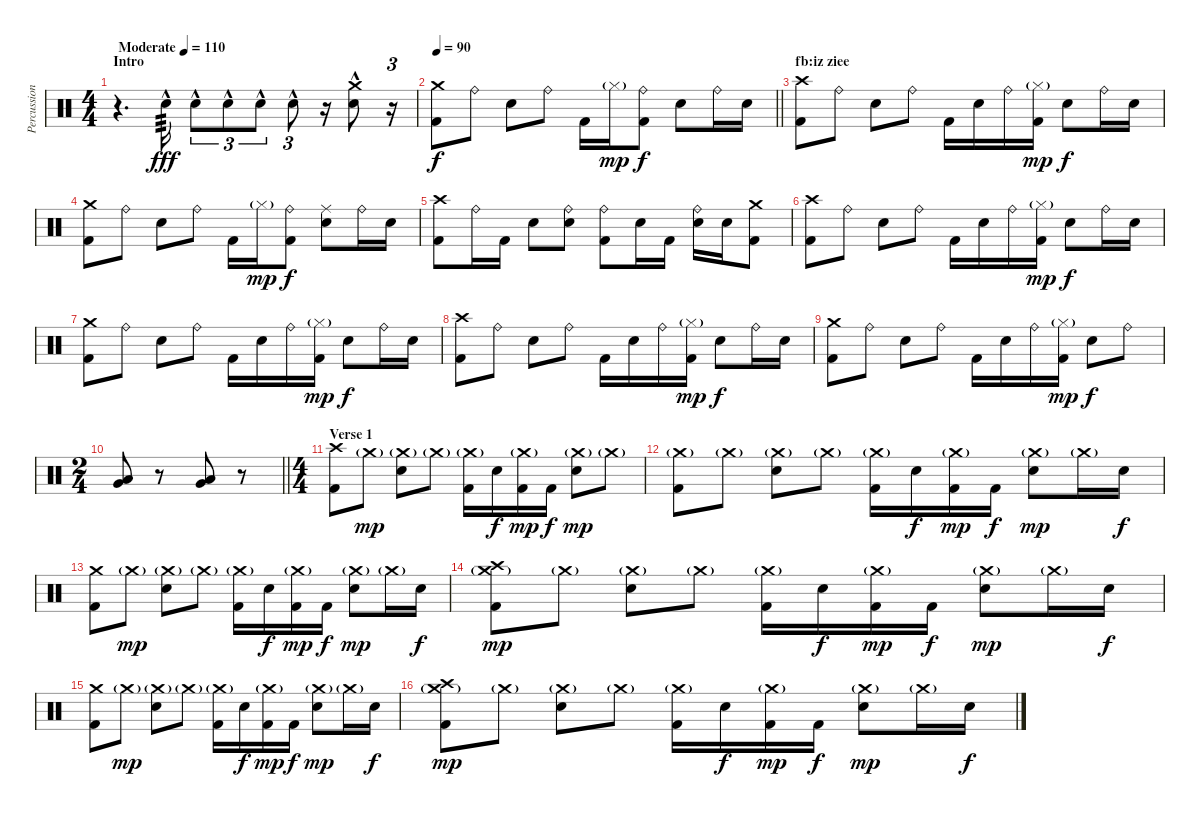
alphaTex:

\track ("Percussion" "Percussion") {instrument percussion}
\staff {score}
\articulation defaults
\ts (4 4)
\section ("" "Intro")
\tempo (110 "Moderate")
\clef neutral
\ks c
r.4{d dy fff} "Electric Snare (hit)"{hac}.16{tp 3} "Electric Snare (hit)"{hac}.8{tu (3 2)} "Electric Snare (hit)"{hac}.8{tu (3 2)} "Electric Snare (hit)"{hac}.8{tu (3 2)} "Electric Snare (hit)"{hac}.8{tu (3 2)} r.16 ("Crash medium (hit)" "Electric Snare (hit)"{hac}).8 r.16{tu (3 2)} |
\tempo 90
\barLineRight lightlight
("Crash medium (hit)" "Kick (hit) 2").8{dy f} "Ride (bell)".8 "Electric Snare (hit)".8 "Ride (bell)".8 "Kick (hit) 2".16 "Hi-Hat (closed)"{g}.16{dy mp} ("Ride (bell)" "Kick (hit) 2").8{dy f} "Electric Snare (hit)".8 "Ride (bell)".16 "Electric Snare (hit)".16 |
\section ("" "fb:iz ziee")
("Crash high (hit)" "Kick (hit) 2").8 "Ride (bell)".8 "Electric Snare (hit)".8 "Ride (bell)".8 "Kick (hit) 2".16 "Electric Snare (hit)".16 "Ride (bell)".16 ("Hi-Hat (closed)"{g} "Kick (hit) 2").16{dy mp} "Electric Snare (hit)".8{dy f} "Ride (bell)".16 "Electric Snare (hit)".16 |
("Crash medium (hit)" "Kick (hit) 2").8 "Ride (bell)".8 "Electric Snare (hit)".8 "Ride (bell)".8 "Kick (hit) 2".16 "Hi-Hat (closed)"{g}.16{dy mp} ("Ride (bell)" "Kick (hit) 2").8{dy f} ("Ride (middle)" "Electric Snare (hit)").8 "Ride (bell)".16 "Electric Snare (hit)".16 |
("Crash high (hit)" "Kick (hit) 2").8 "Ride (bell)".16 "Kick (hit) 2".16 "Electric Snare (hit)".8 ("Ride (bell)" "Electric Snare (hit)").8 ("Ride (bell)" "Kick (hit) 2").8 "Electric Snare (hit)".16 "Kick (hit) 2".16 ("Ride (bell)" "Electric Snare (hit)").16 "Electric Snare (hit)".16 ("Crash medium (hit)" "Kick (hit) 2").8 |
("Crash high (hit)" "Kick (hit) 2").8 "Ride (bell)".8 "Electric Snare (hit)".8 "Ride (bell)".8 "Kick (hit) 2".16 "Electric Snare (hit)".16 "Ride (bell)".16 ("Hi-Hat (closed)"{g} "Kick (hit) 2").16{dy mp} "Electric Snare (hit)".8{dy f} "Ride (bell)".16 "Electric Snare (hit)".16 |
("Crash medium (hit)" "Kick (hit) 2").8 "Ride (bell)".8 "Electric Snare (hit)".8 "Ride (bell)".8 "Kick (hit) 2".16 "Electric Snare (hit)".16 "Ride (bell)".16 ("Hi-Hat (closed)"{g} "Kick (hit) 2").16{dy mp} "Electric Snare (hit)".8{dy f} "Ride (bell)".16 "Electric Snare (hit)".16 |
("Crash high (hit)" "Kick (hit) 2").8 "Ride (bell)".8 "Electric Snare (hit)".8 "Ride (bell)".8 "Kick (hit) 2".16 "Electric Snare (hit)".16 "Ride (bell)".16 ("Hi-Hat (closed)"{g} "Kick (hit) 2").16{dy mp} "Electric Snare (hit)".8{dy f} "Ride (bell)".16 "Electric Snare (hit)".16 |
("Crash medium (hit)" "Kick (hit) 2").8 "Ride (bell)".8 "Electric Snare (hit)".8 "Ride (bell)".8 "Kick (hit) 2".16 "Electric Snare (hit)".16 "Ride (bell)".16 ("Hi-Hat (closed)"{g} "Kick (hit) 2").16{dy mp} "Electric Snare (hit)".8{dy f} "Ride (bell)".8 |
\ts (2 4)
\barLineRight lightlight
("Very Low Tom (hit)" "Low Floor Tom (hit)").8{bd 60} r.8 ("Very Low Tom (hit)" "Low Floor Tom (hit)").8{bd 60} r.8 |
\ts (4 4)
\section ("" "Verse 1")
("Crash high (hit)" "Kick (hit) 2").8 "Crash medium (hit)"{g}.8{dy mp} ("Crash medium (hit)"{g} "Electric Snare (hit)").8 "Crash medium (hit)"{g}.8 ("Crash medium (hit)"{g} "Kick (hit) 2").16 "Electric Snare (hit)".16{dy f} ("Crash medium (hit)"{g} "Kick (hit) 2").16{dy mp} "Kick (hit) 2".16{dy f} ("Crash medium (hit)"{g} "Electric Snare (hit)").8{dy mp} "Crash medium (hit)"{g}.8 |
("Crash medium (hit)"{g} "Kick (hit) 2").8 "Crash medium (hit)"{g}.8 ("Crash medium (hit)"{g} "Electric Snare (hit)").8 "Crash medium (hit)"{g}.8 ("Crash medium (hit)"{g} "Kick (hit) 2").16 "Electric Snare (hit)".16{dy f} ("Crash medium (hit)"{g} "Kick (hit) 2").16{dy mp} "Kick (hit) 2".16{dy f} ("Crash medium (hit)"{g} "Electric Snare (hit)").8{dy mp} "Crash medium (hit)"{g}.16 "Electric Snare (hit)".16{dy f} |
("Crash medium (hit)" "Kick (hit) 2").8 "Crash medium (hit)"{g}.8{dy mp} ("Crash medium (hit)"{g} "Electric Snare (hit)").8 "Crash medium (hit)"{g}.8 ("Crash medium (hit)"{g} "Kick (hit) 2").16 "Electric Snare (hit)".16{dy f} ("Crash medium (hit)"{g} "Kick (hit) 2").16{dy mp} "Kick (hit) 2".16{dy f} ("Crash medium (hit)"{g} "Electric Snare (hit)").8{dy mp} "Crash medium (hit)"{g}.16 "Electric Snare (hit)".16{dy f} |
("Crash medium (hit)"{g} "Crash high (hit)" "Kick (hit) 2").8{dy mp} "Crash medium (hit)"{g}.8 ("Crash medium (hit)"{g} "Electric Snare (hit)").8 "Crash medium (hit)"{g}.8 ("Crash medium (hit)"{g} "Kick (hit) 2").16 "Electric Snare (hit)".16{dy f} ("Crash medium (hit)"{g} "Kick (hit) 2").16{dy mp} "Kick (hit) 2".16{dy f} ("Crash medium (hit)"{g} "Electric Snare (hit)").8{dy mp} "Crash medium (hit)"{g}.16 "Electric Snare (hit)".16{dy f} |
("Crash medium (hit)" "Kick (hit) 2").8 "Crash medium (hit)"{g}.8{dy mp} ("Crash medium (hit)"{g} "Electric Snare (hit)").8 "Crash medium (hit)"{g}.8 ("Crash medium (hit)"{g} "Kick (hit) 2").16 "Electric Snare (hit)".16{dy f} ("Crash medium (hit)"{g} "Kick (hit) 2").16{dy mp} "Kick (hit) 2".16{dy f} ("Crash medium (hit)"{g} "Electric Snare (hit)").8{dy mp} "Crash medium (hit)"{g}.16 "Electric Snare (hit)".16{dy f} |
("Crash medium (hit)"{g} "Crash high (hit)" "Kick (hit) 2").8{dy mp} "Crash medium (hit)"{g}.8 ("Crash medium (hit)"{g} "Electric Snare (hit)").8 "Crash medium (hit)"{g}.8 ("Crash medium (hit)"{g} "Kick (hit) 2").16 "Electric Snare (hit)".16{dy f} ("Crash medium (hit)"{g} "Kick (hit) 2").16{dy mp} "Kick (hit) 2".16{dy f} ("Crash medium (hit)"{g} "Electric Snare (hit)").8{dy mp} "Crash medium (hit)"{g}.16 "Electric Snare (hit)".16{dy f}
